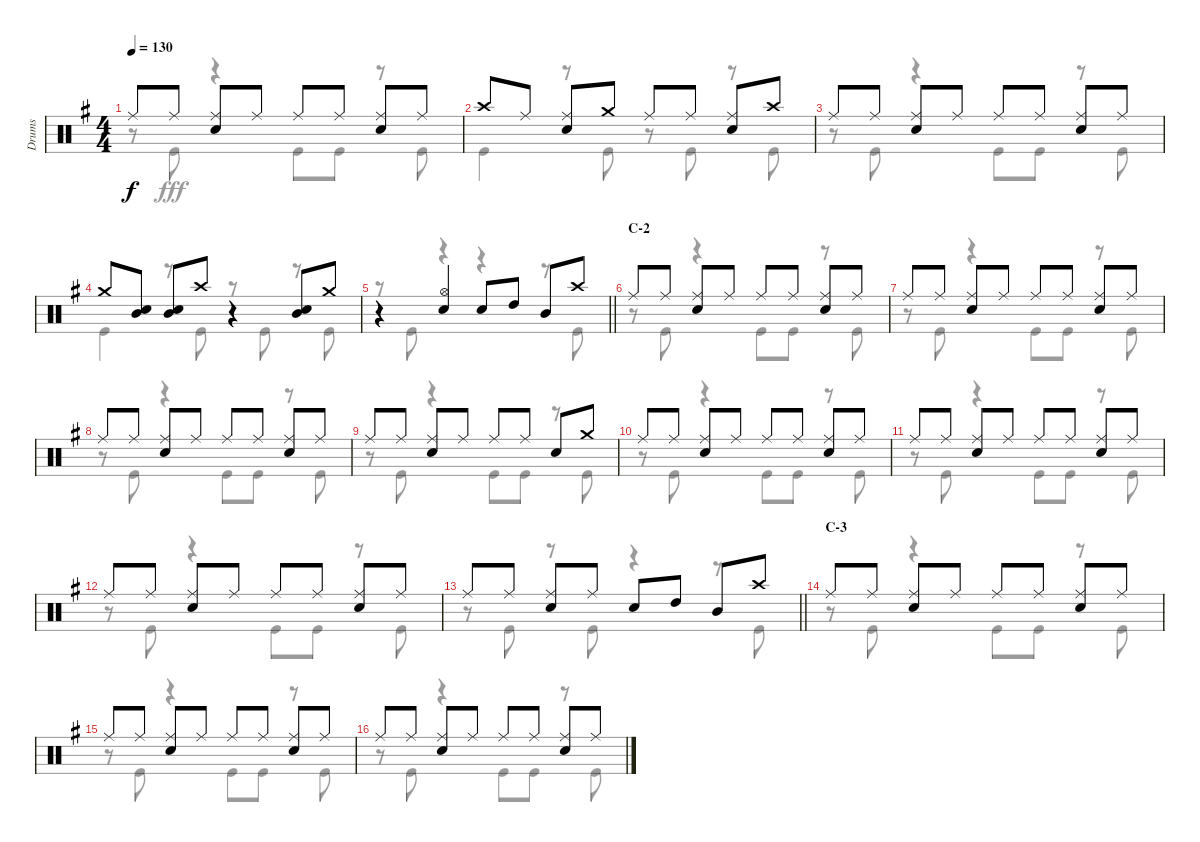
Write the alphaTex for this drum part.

\track ("Drums" "Drums") {instrument percussion}
\staff {score}
\articulation defaults
\voice
\ts (4 4)
\tempo 130
\clef neutral
\ks g "Ride (middle)".8{dy f} "Ride (middle)".8
("Ride (middle)" "Snare (hit) 2").8 "Ride (middle)".8 "Ride (middle)".8 "Ride (middle)".8 ("Ride (middle)" "Snare (hit) 2").8 "Ride (middle)".8 |
"Crash high (hit)".8 "Ride (middle)".8 ("Ride (middle)" "Snare (hit) 2").8 "Crash medium (hit)".8 "Ride (middle)".8 "Ride (middle)".8 ("Ride (middle)" "Snare (hit) 2").8 "Crash high (hit)".8 |
"Ride (middle)".8 "Ride (middle)".8 ("Ride (middle)" "Snare (hit) 2").8 "Ride (middle)".8 "Ride (middle)".8 "Ride (middle)".8 ("Ride (middle)" "Snare (hit) 2").8 "Ride (middle)".8 |
"Crash medium (hit)".8 ("Mid Tom (hit)" "Snare (hit) 2").8 ("Mid Tom (hit)" "Snare (hit) 2").8 "Crash high (hit)".8 r.4 ("Mid Tom (hit)" "Snare (hit) 2").8 "Crash medium (hit)".8 |
\barLineRight lightlight
r.4 ("Hi-Hat (open)" "Snare (hit) 2").4 "Snare (hit) 2".8 "High Tom (hit)".8 "Mid Tom (hit)".8 "Crash high (hit)".8 |
\section ("" "C-2")
"Ride (middle)".8 "Ride (middle)".8 ("Ride (middle)" "Snare (hit) 2").8 "Ride (middle)".8 "Ride (middle)".8 "Ride (middle)".8 ("Ride (middle)" "Snare (hit) 2").8 "Ride (middle)".8 |
"Ride (middle)".8 "Ride (middle)".8 ("Ride (middle)" "Snare (hit) 2").8 "Ride (middle)".8 "Ride (middle)".8 "Ride (middle)".8 ("Ride (middle)" "Snare (hit) 2").8 "Ride (middle)".8 |
"Ride (middle)".8 "Ride (middle)".8 ("Ride (middle)" "Snare (hit) 2").8 "Ride (middle)".8 "Ride (middle)".8 "Ride (middle)".8 ("Ride (middle)" "Snare (hit) 2").8 "Ride (middle)".8 |
"Ride (middle)".8 "Ride (middle)".8 ("Ride (middle)" "Snare (hit) 2").8 "Ride (middle)".8 "Ride (middle)".8 "Ride (middle)".8 "Snare (hit) 2".8 "Crash medium (hit)".8 |
"Ride (middle)".8 "Ride (middle)".8 ("Ride (middle)" "Snare (hit) 2").8 "Ride (middle)".8 "Ride (middle)".8 "Ride (middle)".8 ("Ride (middle)" "Snare (hit) 2").8 "Ride (middle)".8 |
"Ride (middle)".8 "Ride (middle)".8 ("Ride (middle)" "Snare (hit) 2").8 "Ride (middle)".8 "Ride (middle)".8 "Ride (middle)".8 ("Ride (middle)" "Snare (hit) 2").8 "Ride (middle)".8 |
"Ride (middle)".8 "Ride (middle)".8 ("Ride (middle)" "Snare (hit) 2").8 "Ride (middle)".8 "Ride (middle)".8 "Ride (middle)".8 ("Ride (middle)" "Snare (hit) 2").8 "Ride (middle)".8 |
\barLineRight lightlight "Ride (middle)".8 "Ride (middle)".8
("Ride (middle)" "Snare (hit) 2").8 "Ride (middle)".8 "Snare (hit) 2".8 "High Tom (hit)".8 "Mid Tom (hit)".8 "Crash high (hit)".8 |
\section ("" "C-3")
"Ride (middle)".8 "Ride (middle)".8 ("Ride (middle)" "Snare (hit) 2").8 "Ride (middle)".8 "Ride (middle)".8 "Ride (middle)".8 ("Ride (middle)" "Snare (hit) 2").8 "Ride (middle)".8 |
"Ride (middle)".8 "Ride (middle)".8 ("Ride (middle)" "Snare (hit) 2").8 "Ride (middle)".8 "Ride (middle)".8 "Ride (middle)".8 ("Ride (middle)" "Snare (hit) 2").8 "Ride (middle)".8 |
"Ride (middle)".8 "Ride (middle)".8 ("Ride (middle)" "Snare (hit) 2").8 "Ride (middle)".8 "Ride (middle)".8 "Ride (middle)".8 ("Ride (middle)" "Snare (hit) 2").8 "Ride (middle)".8
\voice
\clef neutral
\ottava regular
\simile none
\ks g
r.8{dy fff} "Kick (hit)".8 r.4 "Kick (hit)".8 "Kick (hit)".8 r.8 "Kick (hit)".8 |
"Kick (hit)".4 r.8 "Kick (hit)".8 r.8 "Kick (hit)".8 r.8 "Kick (hit)".8 |
r.8 "Kick (hit)".8 r.4 "Kick (hit)".8 "Kick (hit)".8 r.8 "Kick (hit)".8 |
"Kick (hit)".4 r.8 "Kick (hit)".8 r.8 "Kick (hit)".8 r.8 "Kick (hit)".8 |
\barLineRight lightlight
r.8 "Kick (hit)".8 r.4 r.4 r.8 "Kick (hit)".8 |
r.8 "Kick (hit)".8 r.4 "Kick (hit)".8 "Kick (hit)".8 r.8 "Kick (hit)".8 |
r.8 "Kick (hit)".8 r.4 "Kick (hit)".8 "Kick (hit)".8 r.8 "Kick (hit)".8 |
r.8 "Kick (hit)".8 r.4 "Kick (hit)".8 "Kick (hit)".8 r.8 "Kick (hit)".8 |
r.8 "Kick (hit)".8 r.4 "Kick (hit)".8 "Kick (hit)".8 r.8 "Kick (hit)".8 |
r.8 "Kick (hit)".8 r.4 "Kick (hit)".8 "Kick (hit)".8 r.8 "Kick (hit)".8 |
r.8 "Kick (hit)".8 r.4 "Kick (hit)".8 "Kick (hit)".8 r.8 "Kick (hit)".8 |
r.8 "Kick (hit)".8 r.4 "Kick (hit)".8 "Kick (hit)".8 r.8 "Kick (hit)".8 |
\barLineRight lightlight
r.8 "Kick (hit)".8 r.8 "Kick (hit)".8 r.4 r.8 "Kick (hit)".8 |
r.8 "Kick (hit)".8 r.4 "Kick (hit)".8 "Kick (hit)".8 r.8 "Kick (hit)".8 |
r.8 "Kick (hit)".8 r.4 "Kick (hit)".8 "Kick (hit)".8 r.8 "Kick (hit)".8 |
r.8 "Kick (hit)".8 r.4 "Kick (hit)".8 "Kick (hit)".8 r.8 "Kick (hit)".8
